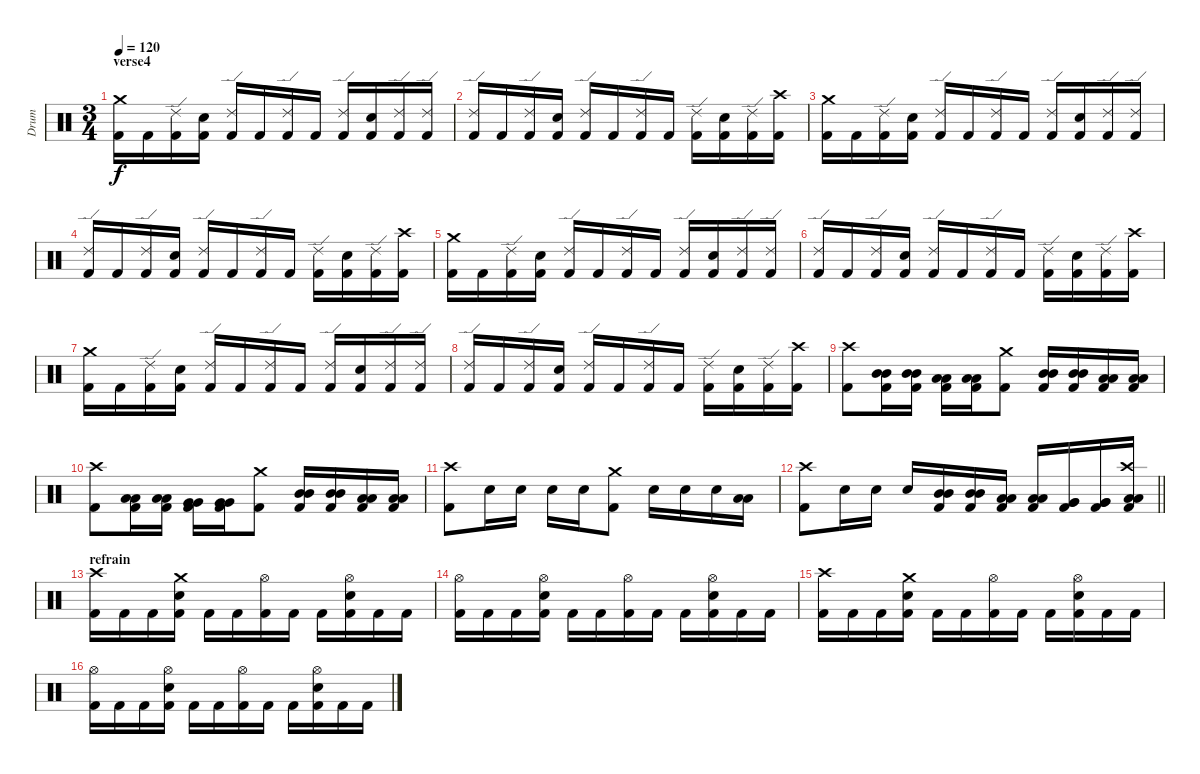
\track ("Drum" "Drum") {instrument percussion}
\staff {score}
\articulation defaults
\ts (3 4)
\section ("" "verse4")
\tempo 120
\clef neutral
\ks c
("Crash medium (hit)" "Kick (hit) 2").16{dy f} "Kick (hit) 2".16 ("Ride (edge) 2" "Kick (hit) 2").16 ("Snare (hit) 2" "Kick (hit) 2").16 ("Ride (edge) 2" "Kick (hit) 2").16 "Kick (hit) 2".16 ("Ride (edge) 2" "Kick (hit) 2").16 "Kick (hit) 2".16 ("Ride (edge) 2" "Kick (hit) 2").16 ("Snare (hit) 2" "Kick (hit) 2").16 ("Ride (edge) 2" "Kick (hit) 2").16 ("Ride (edge) 2" "Kick (hit) 2").16 |
("Ride (edge) 2" "Kick (hit) 2").16 "Kick (hit) 2".16 ("Ride (edge) 2" "Kick (hit) 2").16 ("Snare (hit) 2" "Kick (hit) 2").16 ("Ride (edge) 2" "Kick (hit) 2").16 "Kick (hit) 2".16 ("Ride (edge) 2" "Kick (hit) 2").16 "Kick (hit) 2".16 ("Ride (edge) 2" "Kick (hit) 2").16 ("Snare (hit) 2" "Kick (hit) 2").16 ("Ride (edge) 2" "Kick (hit) 2").16 ("Crash high (hit)" "Kick (hit) 2").16 |
("Crash medium (hit)" "Kick (hit) 2").16 "Kick (hit) 2".16 ("Ride (edge) 2" "Kick (hit) 2").16 ("Snare (hit) 2" "Kick (hit) 2").16 ("Ride (edge) 2" "Kick (hit) 2").16 "Kick (hit) 2".16 ("Ride (edge) 2" "Kick (hit) 2").16 "Kick (hit) 2".16 ("Ride (edge) 2" "Kick (hit) 2").16 ("Snare (hit) 2" "Kick (hit) 2").16 ("Ride (edge) 2" "Kick (hit) 2").16 ("Ride (edge) 2" "Kick (hit) 2").16 |
("Ride (edge) 2" "Kick (hit) 2").16 "Kick (hit) 2".16 ("Ride (edge) 2" "Kick (hit) 2").16 ("Snare (hit) 2" "Kick (hit) 2").16 ("Ride (edge) 2" "Kick (hit) 2").16 "Kick (hit) 2".16 ("Ride (edge) 2" "Kick (hit) 2").16 "Kick (hit) 2".16 ("Ride (edge) 2" "Kick (hit) 2").16 ("Snare (hit) 2" "Kick (hit) 2").16 ("Ride (edge) 2" "Kick (hit) 2").16 ("Crash high (hit)" "Kick (hit) 2").16 |
("Crash medium (hit)" "Kick (hit) 2").16 "Kick (hit) 2".16 ("Ride (edge) 2" "Kick (hit) 2").16 ("Snare (hit) 2" "Kick (hit) 2").16 ("Ride (edge) 2" "Kick (hit) 2").16 "Kick (hit) 2".16 ("Ride (edge) 2" "Kick (hit) 2").16 "Kick (hit) 2".16 ("Ride (edge) 2" "Kick (hit) 2").16 ("Snare (hit) 2" "Kick (hit) 2").16 ("Ride (edge) 2" "Kick (hit) 2").16 ("Ride (edge) 2" "Kick (hit) 2").16 |
("Ride (edge) 2" "Kick (hit) 2").16 "Kick (hit) 2".16 ("Ride (edge) 2" "Kick (hit) 2").16 ("Snare (hit) 2" "Kick (hit) 2").16 ("Ride (edge) 2" "Kick (hit) 2").16 "Kick (hit) 2".16 ("Ride (edge) 2" "Kick (hit) 2").16 "Kick (hit) 2".16 ("Ride (edge) 2" "Kick (hit) 2").16 ("Snare (hit) 2" "Kick (hit) 2").16 ("Ride (edge) 2" "Kick (hit) 2").16 ("Crash high (hit)" "Kick (hit) 2").16 |
("Crash medium (hit)" "Kick (hit) 2").16 "Kick (hit) 2".16 ("Ride (edge) 2" "Kick (hit) 2").16 ("Snare (hit) 2" "Kick (hit) 2").16 ("Ride (edge) 2" "Kick (hit) 2").16 "Kick (hit) 2".16 ("Ride (edge) 2" "Kick (hit) 2").16 "Kick (hit) 2".16 ("Ride (edge) 2" "Kick (hit) 2").16 ("Snare (hit) 2" "Kick (hit) 2").16 ("Ride (edge) 2" "Kick (hit) 2").16 ("Ride (edge) 2" "Kick (hit) 2").16 |
("Ride (edge) 2" "Kick (hit) 2").16 "Kick (hit) 2".16 ("Ride (edge) 2" "Kick (hit) 2").16 ("Snare (hit) 2" "Kick (hit) 2").16 ("Ride (edge) 2" "Kick (hit) 2").16 "Kick (hit) 2".16 ("Ride (edge) 2" "Kick (hit) 2").16 "Kick (hit) 2".16 ("Ride (edge) 2" "Kick (hit) 2").16 ("Snare (hit) 2" "Kick (hit) 2").16 ("Ride (edge) 2" "Kick (hit) 2").16 ("Crash high (hit)" "Kick (hit) 2").16 |
("Crash high (hit)" "Kick (hit) 2").8 ("Mid Tom (hit)" "Mid Tom (hit)" "Kick (hit) 2").16 ("Mid Tom (hit)" "Mid Tom (hit)" "Kick (hit) 2").16 ("Low Tom (hit)" "Low Tom (hit)" "Kick (hit) 2").16 ("Low Tom (hit)" "Low Tom (hit)" "Kick (hit) 2").16 ("Crash medium (hit)" "Kick (hit) 2").8 ("Mid Tom (hit)" "Mid Tom (hit)" "Kick (hit) 2").16 ("Mid Tom (hit)" "Mid Tom (hit)" "Kick (hit) 2").16 ("Low Tom (hit)" "Low Tom (hit)" "Kick (hit) 2").16 ("Low Tom (hit)" "Low Tom (hit)" "Kick (hit) 2").16 |
("Crash high (hit)" "Kick (hit) 2").8 ("Low Tom (hit)" "Low Tom (hit)" "Kick (hit) 2").16 ("Low Tom (hit)" "Low Tom (hit)" "Kick (hit) 2").16 ("Very Low Tom (hit)" "Very Low Tom (hit)" "Kick (hit) 2").16 ("Very Low Tom (hit)" "Very Low Tom (hit)" "Kick (hit) 2").16 ("Crash medium (hit)" "Kick (hit) 2").8 ("Mid Tom (hit)" "Mid Tom (hit)" "Kick (hit) 2").16 ("Mid Tom (hit)" "Mid Tom (hit)" "Kick (hit) 2").16 ("Low Tom (hit)" "Low Tom (hit)" "Kick (hit) 2").16 ("Low Tom (hit)" "Low Tom (hit)" "Kick (hit) 2").16 |
("Crash high (hit)" "Kick (hit) 2").8 "Snare (hit) 2".16 "Snare (hit) 2".16 "Snare (hit) 2".16 "Snare (hit) 2".16 ("Crash medium (hit)" "Kick (hit) 2").8 "Snare (hit) 2".16 "Snare (hit) 2".16 "Snare (hit) 2".16 ("Low Tom (hit)" "Low Tom (hit)").16 |
\barLineRight lightlight
("Crash high (hit)" "Kick (hit) 2").8 "Snare (hit) 2".16 "Snare (hit) 2".16 "Snare (hit) 2".16 ("Mid Tom (hit)" "Mid Tom (hit)" "Kick (hit) 2").16 ("Mid Tom (hit)" "Mid Tom (hit)" "Kick (hit) 2").16 ("Low Tom (hit)" "Low Tom (hit)" "Kick (hit) 2").16 ("Low Tom (hit)" "Low Tom (hit)" "Kick (hit) 2").16 ("Very Low Tom (hit)" "Very Low Tom (hit)" "Kick (hit) 2").16 ("Very Low Tom (hit)" "Very Low Tom (hit)" "Kick (hit) 2").16 ("Crash high (hit)" "Low Floor Tom (hit)" "Low Floor Tom (hit)" "Kick (hit) 2").16 |
\section ("" "refrain")
("Crash high (hit)" "Kick (hit) 2").16 "Kick (hit) 2".16 "Kick (hit) 2".16 ("Crash medium (hit)" "Snare (hit) 2" "Kick (hit) 2").16 "Kick (hit) 2".16 "Kick (hit) 2".16 ("Hi-Hat (open)" "Kick (hit) 2").16 "Kick (hit) 2".16 "Kick (hit) 2".16 ("Hi-Hat (open)" "Snare (hit) 2" "Kick (hit) 2").16 "Kick (hit) 2".16 "Kick (hit) 2".16 |
("Hi-Hat (open)" "Kick (hit) 2").16 "Kick (hit) 2".16 "Kick (hit) 2".16 ("Hi-Hat (open)" "Snare (hit) 2" "Kick (hit) 2").16 "Kick (hit) 2".16 "Kick (hit) 2".16 ("Hi-Hat (open)" "Kick (hit) 2").16 "Kick (hit) 2".16 "Kick (hit) 2".16 ("Hi-Hat (open)" "Snare (hit) 2" "Kick (hit) 2").16 "Kick (hit) 2".16 "Kick (hit) 2".16 |
("Crash high (hit)" "Kick (hit) 2").16 "Kick (hit) 2".16 "Kick (hit) 2".16 ("Crash medium (hit)" "Snare (hit) 2" "Kick (hit) 2").16 "Kick (hit) 2".16 "Kick (hit) 2".16 ("Hi-Hat (open)" "Kick (hit) 2").16 "Kick (hit) 2".16 "Kick (hit) 2".16 ("Hi-Hat (open)" "Snare (hit) 2" "Kick (hit) 2").16 "Kick (hit) 2".16 "Kick (hit) 2".16 |
("Hi-Hat (open)" "Kick (hit) 2").16 "Kick (hit) 2".16 "Kick (hit) 2".16 ("Hi-Hat (open)" "Snare (hit) 2" "Kick (hit) 2").16 "Kick (hit) 2".16 "Kick (hit) 2".16 ("Hi-Hat (open)" "Kick (hit) 2").16 "Kick (hit) 2".16 "Kick (hit) 2".16 ("Hi-Hat (open)" "Snare (hit) 2" "Kick (hit) 2").16 "Kick (hit) 2".16 "Kick (hit) 2".16
